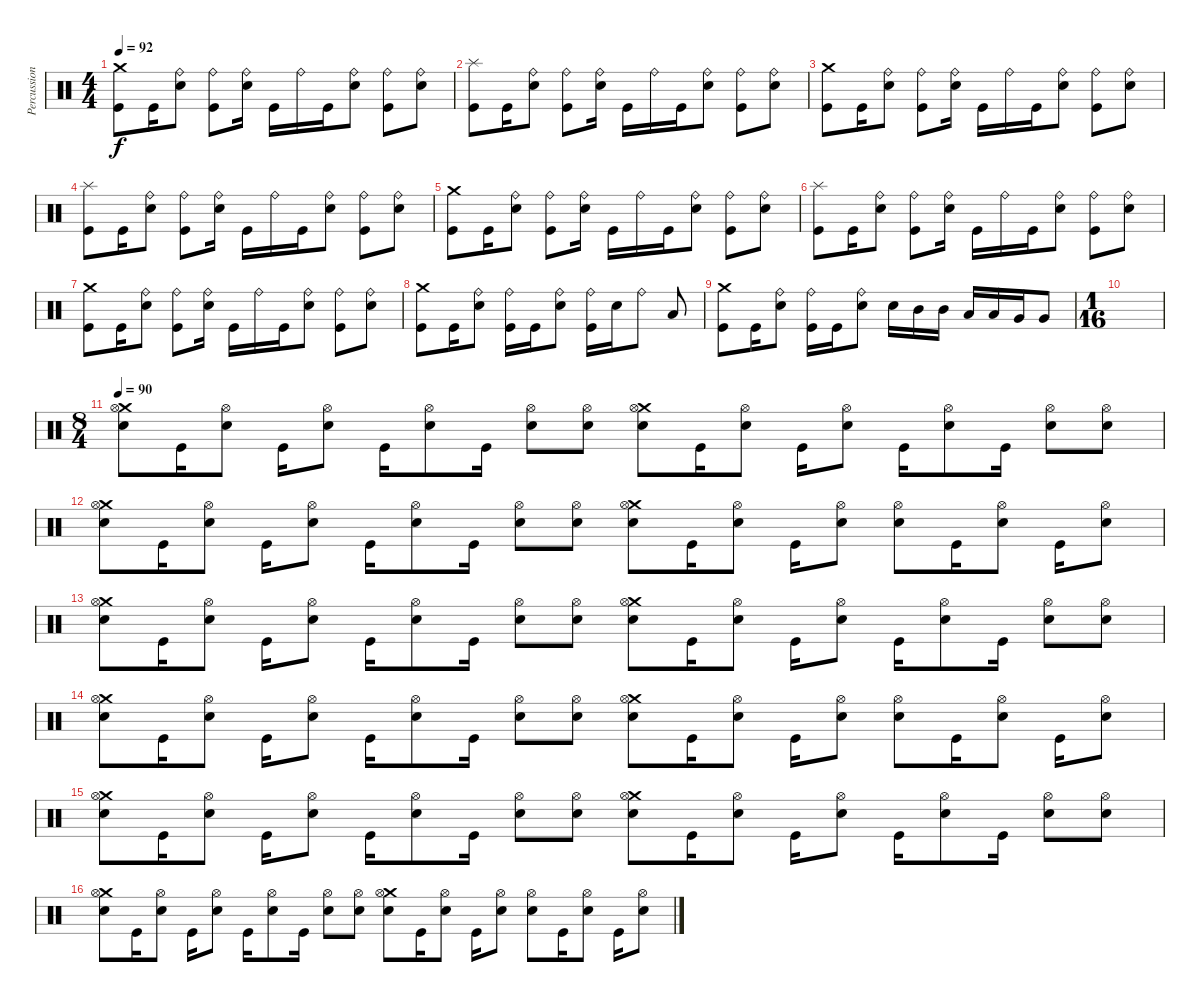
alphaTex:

\track ("Percussion" "Percussion") {instrument percussion}
\staff {score}
\articulation defaults
\ts (4 4)
\tempo 92
\clef neutral
\ks c
("Kick (hit)" "Crash medium (hit)").8{dy f} "Kick (hit)".16 ("Snare (hit) 2" "Ride (bell)").8 ("Kick (hit)" "Ride (bell)").8 ("Snare (hit) 2" "Ride (bell)").16 "Kick (hit)".16 "Ride (bell)".16 "Kick (hit)".16 ("Snare (hit) 2" "Ride (bell)").8 ("Kick (hit)" "Ride (bell)").8 ("Snare (hit) 2" "Ride (bell)").8 |
("Kick (hit)" "Splash (hit)").8 "Kick (hit)".16 ("Snare (hit) 2" "Ride (bell)").8 ("Kick (hit)" "Ride (bell)").8 ("Snare (hit) 2" "Ride (bell)").16 "Kick (hit)".16 "Ride (bell)".16 "Kick (hit)".16 ("Snare (hit) 2" "Ride (bell)").8 ("Kick (hit)" "Ride (bell)").8 ("Snare (hit) 2" "Ride (bell)").8 |
("Kick (hit)" "Crash medium (hit)").8 "Kick (hit)".16 ("Snare (hit) 2" "Ride (bell)").8 ("Kick (hit)" "Ride (bell)").8 ("Snare (hit) 2" "Ride (bell)").16 "Kick (hit)".16 "Ride (bell)".16 "Kick (hit)".16 ("Snare (hit) 2" "Ride (bell)").8 ("Kick (hit)" "Ride (bell)").8 ("Snare (hit) 2" "Ride (bell)").8 |
("Kick (hit)" "Splash (hit)").8 "Kick (hit)".16 ("Snare (hit) 2" "Ride (bell)").8 ("Kick (hit)" "Ride (bell)").8 ("Snare (hit) 2" "Ride (bell)").16 "Kick (hit)".16 "Ride (bell)".16 "Kick (hit)".16 ("Snare (hit) 2" "Ride (bell)").8 ("Kick (hit)" "Ride (bell)").8 ("Snare (hit) 2" "Ride (bell)").8 |
("Kick (hit)" "Crash medium (hit)").8 "Kick (hit)".16 ("Snare (hit) 2" "Ride (bell)").8 ("Kick (hit)" "Ride (bell)").8 ("Snare (hit) 2" "Ride (bell)").16 "Kick (hit)".16 "Ride (bell)".16 "Kick (hit)".16 ("Snare (hit) 2" "Ride (bell)").8 ("Kick (hit)" "Ride (bell)").8 ("Snare (hit) 2" "Ride (bell)").8 |
("Kick (hit)" "Splash (hit)").8 "Kick (hit)".16 ("Snare (hit) 2" "Ride (bell)").8 ("Kick (hit)" "Ride (bell)").8 ("Snare (hit) 2" "Ride (bell)").16 "Kick (hit)".16 "Ride (bell)".16 "Kick (hit)".16 ("Snare (hit) 2" "Ride (bell)").8 ("Kick (hit)" "Ride (bell)").8 ("Snare (hit) 2" "Ride (bell)").8 |
("Kick (hit)" "Crash medium (hit)").8 "Kick (hit)".16 ("Snare (hit) 2" "Ride (bell)").8 ("Kick (hit)" "Ride (bell)").8 ("Snare (hit) 2" "Ride (bell)").16 "Kick (hit)".16 "Ride (bell)".16 "Kick (hit)".16 ("Snare (hit) 2" "Ride (bell)").8 ("Kick (hit)" "Ride (bell)").8 ("Snare (hit) 2" "Ride (bell)").8 |
("Kick (hit)" "Crash medium (hit)").8 "Kick (hit)".16 ("Snare (hit) 2" "Ride (bell)").8 ("Kick (hit)" "Ride (bell)").16 "Kick (hit)".16 ("Snare (hit) 2" "Ride (bell)").8 ("Kick (hit)" "Ride (bell)").16 "Snare (hit) 2".16 "Ride (bell)".8 "Low Tom (hit)".8 |
("Kick (hit)" "Crash medium (hit)").8 "Kick (hit)".16 ("Snare (hit) 2" "Ride (bell)").8 ("Kick (hit)" "Ride (bell)").16 "Kick (hit)".16 ("Snare (hit) 2" "Ride (bell)").8 "Snare (hit) 2".16 "Mid Tom (hit)".16 "Mid Tom (hit)".16 "Low Tom (hit)".16 "Low Tom (hit)".16 "Very Low Tom (hit)".16 "Very Low Tom (hit)".8 |
\ts (1 16)
|
\ts (8 4)
\tempo 90
("Crash medium (hit)" "Hi-Hat (open)" "Snare (hit) 2").8 "Kick (hit)".16 ("Hi-Hat (open)" "Snare (hit) 2").8 "Kick (hit)".16 ("Hi-Hat (open)" "Snare (hit) 2").8 "Kick (hit)".16 ("Hi-Hat (open)" "Snare (hit) 2").8 "Kick (hit)".16 ("Hi-Hat (open)" "Snare (hit) 2").8 ("Hi-Hat (open)" "Snare (hit) 2").8 ("Crash medium (hit)" "Hi-Hat (open)" "Snare (hit) 2").8 "Kick (hit)".16 ("Hi-Hat (open)" "Snare (hit) 2").8 "Kick (hit)".16 ("Hi-Hat (open)" "Snare (hit) 2").8 "Kick (hit)".16 ("Hi-Hat (open)" "Snare (hit) 2").8 "Kick (hit)".16 ("Hi-Hat (open)" "Snare (hit) 2").8 ("Hi-Hat (open)" "Snare (hit) 2").8 |
("Crash medium (hit)" "Hi-Hat (open)" "Snare (hit) 2").8 "Kick (hit)".16 ("Hi-Hat (open)" "Snare (hit) 2").8 "Kick (hit)".16 ("Hi-Hat (open)" "Snare (hit) 2").8 "Kick (hit)".16 ("Hi-Hat (open)" "Snare (hit) 2").8 "Kick (hit)".16 ("Hi-Hat (open)" "Snare (hit) 2").8 ("Hi-Hat (open)" "Snare (hit) 2").8 ("Crash medium (hit)" "Hi-Hat (open)" "Snare (hit) 2").8 "Kick (hit)".16 ("Hi-Hat (open)" "Snare (hit) 2").8 "Kick (hit)".16 ("Hi-Hat (open)" "Snare (hit) 2").8 ("Hi-Hat (open)" "Snare (hit) 2").8 "Kick (hit)".16 ("Hi-Hat (open)" "Snare (hit) 2").8 "Kick (hit)".16 ("Hi-Hat (open)" "Snare (hit) 2").8 |
("Crash medium (hit)" "Hi-Hat (open)" "Snare (hit) 2").8 "Kick (hit)".16 ("Hi-Hat (open)" "Snare (hit) 2").8 "Kick (hit)".16 ("Hi-Hat (open)" "Snare (hit) 2").8 "Kick (hit)".16 ("Hi-Hat (open)" "Snare (hit) 2").8 "Kick (hit)".16 ("Hi-Hat (open)" "Snare (hit) 2").8 ("Hi-Hat (open)" "Snare (hit) 2").8 ("Crash medium (hit)" "Hi-Hat (open)" "Snare (hit) 2").8 "Kick (hit)".16 ("Hi-Hat (open)" "Snare (hit) 2").8 "Kick (hit)".16 ("Hi-Hat (open)" "Snare (hit) 2").8 "Kick (hit)".16 ("Hi-Hat (open)" "Snare (hit) 2").8 "Kick (hit)".16 ("Hi-Hat (open)" "Snare (hit) 2").8 ("Hi-Hat (open)" "Snare (hit) 2").8 |
("Crash medium (hit)" "Hi-Hat (open)" "Snare (hit) 2").8 "Kick (hit)".16 ("Hi-Hat (open)" "Snare (hit) 2").8 "Kick (hit)".16 ("Hi-Hat (open)" "Snare (hit) 2").8 "Kick (hit)".16 ("Hi-Hat (open)" "Snare (hit) 2").8 "Kick (hit)".16 ("Hi-Hat (open)" "Snare (hit) 2").8 ("Hi-Hat (open)" "Snare (hit) 2").8 ("Crash medium (hit)" "Hi-Hat (open)" "Snare (hit) 2").8 "Kick (hit)".16 ("Hi-Hat (open)" "Snare (hit) 2").8 "Kick (hit)".16 ("Hi-Hat (open)" "Snare (hit) 2").8 ("Hi-Hat (open)" "Snare (hit) 2").8 "Kick (hit)".16 ("Hi-Hat (open)" "Snare (hit) 2").8 "Kick (hit)".16 ("Hi-Hat (open)" "Snare (hit) 2").8 |
("Crash medium (hit)" "Hi-Hat (open)" "Snare (hit) 2").8 "Kick (hit)".16 ("Hi-Hat (open)" "Snare (hit) 2").8 "Kick (hit)".16 ("Hi-Hat (open)" "Snare (hit) 2").8 "Kick (hit)".16 ("Hi-Hat (open)" "Snare (hit) 2").8 "Kick (hit)".16 ("Hi-Hat (open)" "Snare (hit) 2").8 ("Hi-Hat (open)" "Snare (hit) 2").8 ("Crash medium (hit)" "Hi-Hat (open)" "Snare (hit) 2").8 "Kick (hit)".16 ("Hi-Hat (open)" "Snare (hit) 2").8 "Kick (hit)".16 ("Hi-Hat (open)" "Snare (hit) 2").8 "Kick (hit)".16 ("Hi-Hat (open)" "Snare (hit) 2").8 "Kick (hit)".16 ("Hi-Hat (open)" "Snare (hit) 2").8 ("Hi-Hat (open)" "Snare (hit) 2").8 |
("Crash medium (hit)" "Hi-Hat (open)" "Snare (hit) 2").8 "Kick (hit)".16 ("Hi-Hat (open)" "Snare (hit) 2").8 "Kick (hit)".16 ("Hi-Hat (open)" "Snare (hit) 2").8 "Kick (hit)".16 ("Hi-Hat (open)" "Snare (hit) 2").8 "Kick (hit)".16 ("Hi-Hat (open)" "Snare (hit) 2").8 ("Hi-Hat (open)" "Snare (hit) 2").8 ("Crash medium (hit)" "Hi-Hat (open)" "Snare (hit) 2").8 "Kick (hit)".16 ("Hi-Hat (open)" "Snare (hit) 2").8 "Kick (hit)".16 ("Hi-Hat (open)" "Snare (hit) 2").8 ("Hi-Hat (open)" "Snare (hit) 2").8 "Kick (hit)".16 ("Hi-Hat (open)" "Snare (hit) 2").8 "Kick (hit)".16 ("Hi-Hat (open)" "Snare (hit) 2").8
